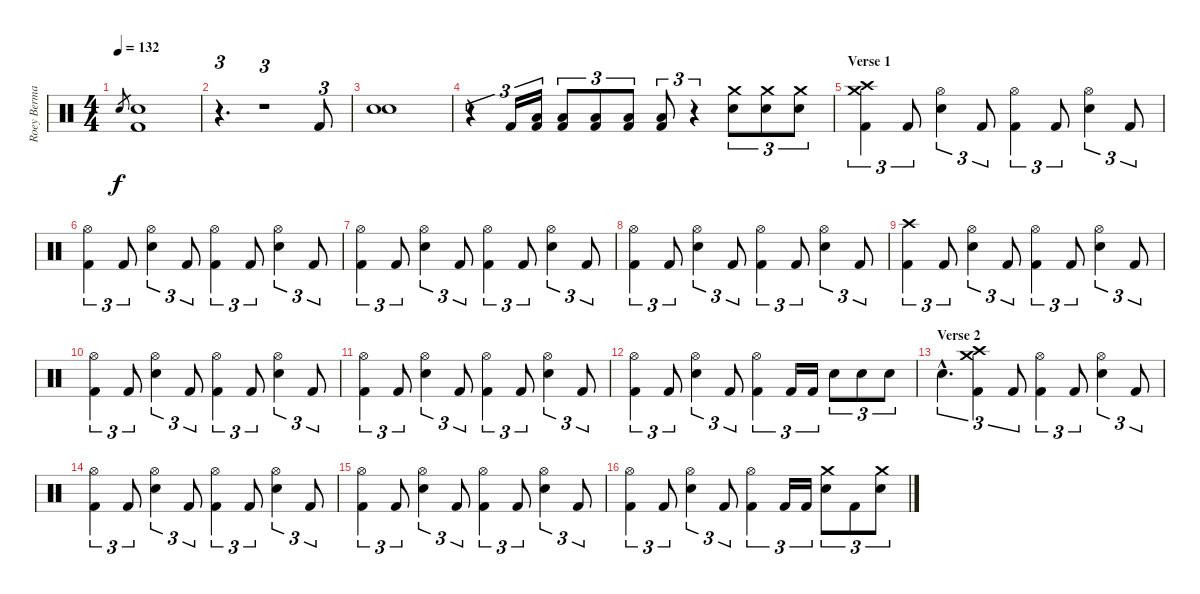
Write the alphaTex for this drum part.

\track ("Roey Berman" "Roey Berma") {instrument percussion}
\staff {score}
\articulation defaults
\ts (4 4)
\section ("" "")
\tempo 132
\clef neutral
\ks c "Electric Snare (hit)".8{gr dy f}
("Electric Snare (hit)" "Kick (hit) 2").1 |
r.4{d tu (3 2)} r.1{tu (3 2)} "Kick (hit) 2".8{tu (3 2)} |
("Electric Snare (hit)" "Electric Snare (hit)").1 |
r.4{tu (3 2)} "Kick (hit) 2".16{tu (3 2)} ("Low Floor Tom (hit)" "Kick (hit) 2").16{tu (3 2)} ("Low Floor Tom (hit)" "Kick (hit) 2").8{tu (3 2)} ("Low Floor Tom (hit)" "Kick (hit) 2").8{tu (3 2)} ("Low Floor Tom (hit)" "Kick (hit) 2").8{tu (3 2)} ("Low Floor Tom (hit)" "Kick (hit) 2").8{tu (3 2)} r.4{tu (3 2)} ("Crash medium (hit)" "Electric Snare (hit)").8{tu (3 2)} ("Crash medium (hit)" "Electric Snare (hit)").8{tu (3 2)} ("Crash medium (hit)" "Electric Snare (hit)").8{tu (3 2)} |
\section ("" "Verse 1")
("Crash high (hit)" "Crash medium (hit)" "Kick (hit) 2").4{tu (3 2)} "Kick (hit) 2".8{tu (3 2)} ("Hi-Hat (open)" "Electric Snare (hit)").4{tu (3 2)} "Kick (hit) 2".8{tu (3 2)} ("Hi-Hat (open)" "Kick (hit) 2").4{tu (3 2)} "Kick (hit) 2".8{tu (3 2)} ("Hi-Hat (open)" "Electric Snare (hit)").4{tu (3 2)} "Kick (hit) 2".8{tu (3 2)} |
("Hi-Hat (open)" "Kick (hit) 2").4{tu (3 2)} "Kick (hit) 2".8{tu (3 2)} ("Hi-Hat (open)" "Electric Snare (hit)").4{tu (3 2)} "Kick (hit) 2".8{tu (3 2)} ("Hi-Hat (open)" "Kick (hit) 2").4{tu (3 2)} "Kick (hit) 2".8{tu (3 2)} ("Hi-Hat (open)" "Electric Snare (hit)").4{tu (3 2)} "Kick (hit) 2".8{tu (3 2)} |
("Hi-Hat (open)" "Kick (hit) 2").4{tu (3 2)} "Kick (hit) 2".8{tu (3 2)} ("Hi-Hat (open)" "Electric Snare (hit)").4{tu (3 2)} "Kick (hit) 2".8{tu (3 2)} ("Hi-Hat (open)" "Kick (hit) 2").4{tu (3 2)} "Kick (hit) 2".8{tu (3 2)} ("Hi-Hat (open)" "Electric Snare (hit)").4{tu (3 2)} "Kick (hit) 2".8{tu (3 2)} |
("Hi-Hat (open)" "Kick (hit) 2").4{tu (3 2)} "Kick (hit) 2".8{tu (3 2)} ("Hi-Hat (open)" "Electric Snare (hit)").4{tu (3 2)} "Kick (hit) 2".8{tu (3 2)} ("Hi-Hat (open)" "Kick (hit) 2").4{tu (3 2)} "Kick (hit) 2".8{tu (3 2)} ("Hi-Hat (open)" "Electric Snare (hit)").4{tu (3 2)} "Kick (hit) 2".8{tu (3 2)} |
("Crash high (hit)" "Kick (hit) 2").4{tu (3 2)} "Kick (hit) 2".8{tu (3 2)} ("Hi-Hat (open)" "Electric Snare (hit)").4{tu (3 2)} "Kick (hit) 2".8{tu (3 2)} ("Hi-Hat (open)" "Kick (hit) 2").4{tu (3 2)} "Kick (hit) 2".8{tu (3 2)} ("Hi-Hat (open)" "Electric Snare (hit)").4{tu (3 2)} "Kick (hit) 2".8{tu (3 2)} |
("Hi-Hat (open)" "Kick (hit) 2").4{tu (3 2)} "Kick (hit) 2".8{tu (3 2)} ("Hi-Hat (open)" "Electric Snare (hit)").4{tu (3 2)} "Kick (hit) 2".8{tu (3 2)} ("Hi-Hat (open)" "Kick (hit) 2").4{tu (3 2)} "Kick (hit) 2".8{tu (3 2)} ("Hi-Hat (open)" "Electric Snare (hit)").4{tu (3 2)} "Kick (hit) 2".8{tu (3 2)} |
("Hi-Hat (open)" "Kick (hit) 2").4{tu (3 2)} "Kick (hit) 2".8{tu (3 2)} ("Hi-Hat (open)" "Electric Snare (hit)").4{tu (3 2)} "Kick (hit) 2".8{tu (3 2)} ("Hi-Hat (open)" "Kick (hit) 2").4{tu (3 2)} "Kick (hit) 2".8{tu (3 2)} ("Hi-Hat (open)" "Electric Snare (hit)").4{tu (3 2)} "Kick (hit) 2".8{tu (3 2)} |
("Hi-Hat (open)" "Kick (hit) 2").4{tu (3 2)} "Kick (hit) 2".8{tu (3 2)} ("Hi-Hat (open)" "Electric Snare (hit)").4{tu (3 2)} "Kick (hit) 2".8{tu (3 2)} ("Hi-Hat (open)" "Kick (hit) 2").4{tu (3 2)} "Kick (hit) 2".16{tu (3 2)} "Kick (hit) 2".16{tu (3 2)} "Electric Snare (hit)".8{tu (3 2)} "Electric Snare (hit)".8{tu (3 2)} "Electric Snare (hit)".8{tu (3 2)} |
\section ("" "Verse 2")
"Electric Snare (hit)"{hac}.4{d tu (3 2)} ("Crash high (hit)" "Crash medium (hit)" "Kick (hit) 2").4{tu (3 2)} "Kick (hit) 2".8{tu (3 2)} ("Hi-Hat (open)" "Kick (hit) 2").4{tu (3 2)} "Kick (hit) 2".8{tu (3 2)} ("Hi-Hat (open)" "Electric Snare (hit)").4{tu (3 2)} "Kick (hit) 2".8{tu (3 2)} |
("Hi-Hat (open)" "Kick (hit) 2").4{tu (3 2)} "Kick (hit) 2".8{tu (3 2)} ("Hi-Hat (open)" "Electric Snare (hit)").4{tu (3 2)} "Kick (hit) 2".8{tu (3 2)} ("Hi-Hat (open)" "Kick (hit) 2").4{tu (3 2)} "Kick (hit) 2".8{tu (3 2)} ("Hi-Hat (open)" "Electric Snare (hit)").4{tu (3 2)} "Kick (hit) 2".8{tu (3 2)} |
("Hi-Hat (open)" "Kick (hit) 2").4{tu (3 2)} "Kick (hit) 2".8{tu (3 2)} ("Hi-Hat (open)" "Electric Snare (hit)").4{tu (3 2)} "Kick (hit) 2".8{tu (3 2)} ("Hi-Hat (open)" "Kick (hit) 2").4{tu (3 2)} "Kick (hit) 2".8{tu (3 2)} ("Hi-Hat (open)" "Electric Snare (hit)").4{tu (3 2)} "Kick (hit) 2".8{tu (3 2)} |
("Hi-Hat (open)" "Kick (hit) 2").4{tu (3 2)} "Kick (hit) 2".8{tu (3 2)} ("Hi-Hat (open)" "Electric Snare (hit)").4{tu (3 2)} "Kick (hit) 2".8{tu (3 2)} ("Hi-Hat (open)" "Kick (hit) 2").4{tu (3 2)} "Kick (hit) 2".16{tu (3 2)} "Kick (hit) 2".16{tu (3 2)} ("Crash medium (hit)" "Electric Snare (hit)").8{tu (3 2)} "Kick (hit) 2".8{tu (3 2)} ("Crash medium (hit)" "Electric Snare (hit)").8{tu (3 2)}
